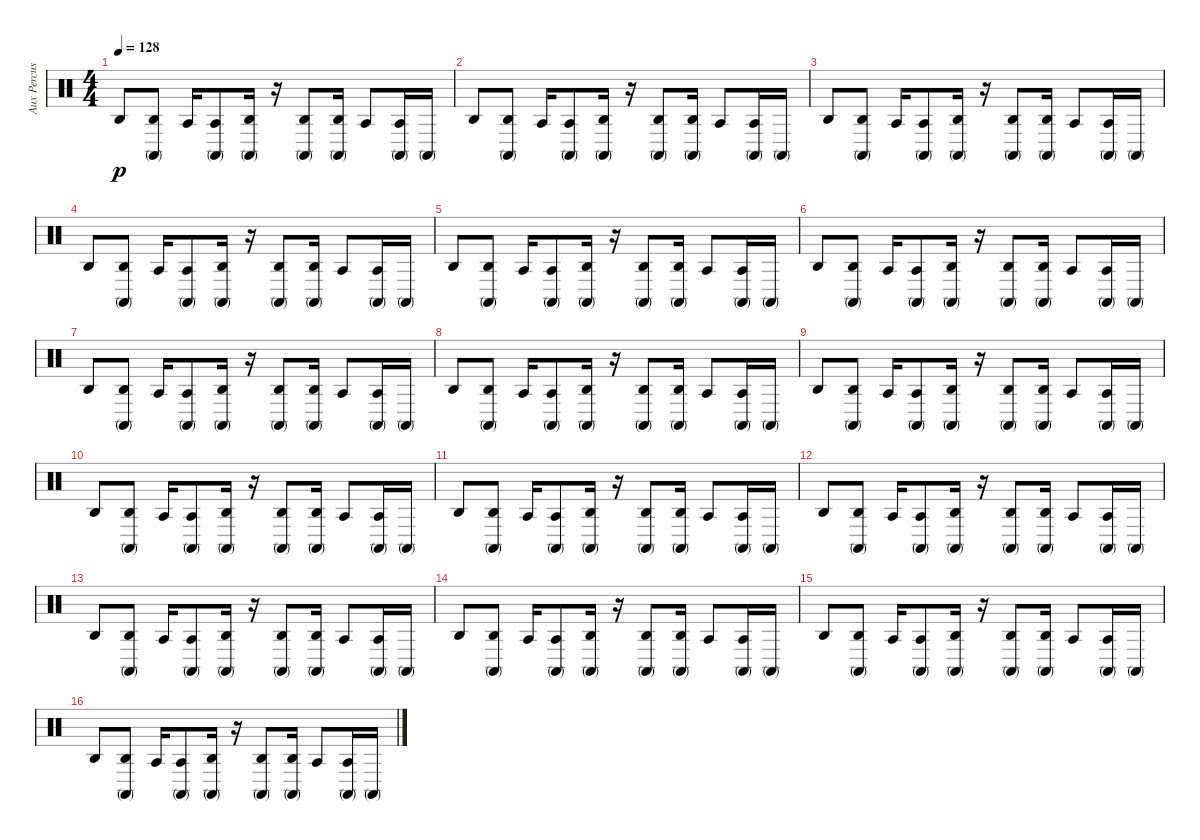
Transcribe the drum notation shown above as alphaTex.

\track ("Aux Percussion" "Aux Percus") {instrument percussion}
\staff {score}
\articulation defaults
\ts (4 4)
\tempo 128
\clef neutral
\ks c "Agogo high (hit)".8{dy p}
("Agogo high (hit)" "Conga high (mute)").8 "Agogo tow (hit)".16 ("Agogo tow (hit)" "Conga high (mute)").8 ("Conga high (mute)" "Agogo high (hit)").16 r.16 ("Conga high (mute)" "Agogo high (hit)").8 ("Agogo high (hit)" "Conga high (mute)").16 "Agogo tow (hit)".8 ("Conga high (mute)" "Agogo tow (hit)").16 "Conga high (mute)".16 |
"Agogo high (hit)".8 ("Conga high (mute)" "Agogo high (hit)").8 "Agogo tow (hit)".16 ("Conga high (mute)" "Agogo tow (hit)").8 ("Agogo high (hit)" "Conga high (mute)").16 r.16 ("Conga high (mute)" "Agogo high (hit)").8 ("Agogo high (hit)" "Conga high (mute)").16 "Agogo tow (hit)".8 ("Conga high (mute)" "Agogo tow (hit)").16 "Conga high (mute)".16 |
"Agogo high (hit)".8 ("Agogo high (hit)" "Conga high (mute)").8 "Agogo tow (hit)".16 ("Agogo tow (hit)" "Conga high (mute)").8 ("Conga high (mute)" "Agogo high (hit)").16 r.16 ("Conga high (mute)" "Agogo high (hit)").8 ("Agogo high (hit)" "Conga high (mute)").16 "Agogo tow (hit)".8 ("Conga high (mute)" "Agogo tow (hit)").16 "Conga high (mute)".16 |
"Agogo high (hit)".8 ("Conga high (mute)" "Agogo high (hit)").8 "Agogo tow (hit)".16 ("Conga high (mute)" "Agogo tow (hit)").8 ("Agogo high (hit)" "Conga high (mute)").16 r.16 ("Conga high (mute)" "Agogo high (hit)").8 ("Agogo high (hit)" "Conga high (mute)").16 "Agogo tow (hit)".8 ("Conga high (mute)" "Agogo tow (hit)").16 "Conga high (mute)".16 |
"Agogo high (hit)".8 ("Conga high (mute)" "Agogo high (hit)").8 "Agogo tow (hit)".16 ("Conga high (mute)" "Agogo tow (hit)").8 ("Agogo high (hit)" "Conga high (mute)").16 r.16 ("Agogo high (hit)" "Conga high (mute)").8 ("Conga high (mute)" "Agogo high (hit)").16 "Agogo tow (hit)".8 ("Agogo tow (hit)" "Conga high (mute)").16 "Conga high (mute)".16 |
"Agogo high (hit)".8 ("Agogo high (hit)" "Conga high (mute)").8 "Agogo tow (hit)".16 ("Agogo tow (hit)" "Conga high (mute)").8 ("Conga high (mute)" "Agogo high (hit)").16 r.16 ("Agogo high (hit)" "Conga high (mute)").8 ("Conga high (mute)" "Agogo high (hit)").16 "Agogo tow (hit)".8 ("Agogo tow (hit)" "Conga high (mute)").16 "Conga high (mute)".16 |
"Agogo high (hit)".8 ("Conga high (mute)" "Agogo high (hit)").8 "Agogo tow (hit)".16 ("Conga high (mute)" "Agogo tow (hit)").8 ("Agogo high (hit)" "Conga high (mute)").16 r.16 ("Agogo high (hit)" "Conga high (mute)").8 ("Conga high (mute)" "Agogo high (hit)").16 "Agogo tow (hit)".8 ("Agogo tow (hit)" "Conga high (mute)").16 "Conga high (mute)".16 |
"Agogo high (hit)".8 ("Conga high (mute)" "Agogo high (hit)").8 "Agogo tow (hit)".16 ("Conga high (mute)" "Agogo tow (hit)").8 ("Agogo high (hit)" "Conga high (mute)").16 r.16 ("Conga high (mute)" "Agogo high (hit)").8 ("Agogo high (hit)" "Conga high (mute)").16 "Agogo tow (hit)".8 ("Conga high (mute)" "Agogo tow (hit)").16 "Conga high (mute)".16 |
"Agogo high (hit)".8 ("Conga high (mute)" "Agogo high (hit)").8 "Agogo tow (hit)".16 ("Conga high (mute)" "Agogo tow (hit)").8 ("Agogo high (hit)" "Conga high (mute)").16 r.16 ("Agogo high (hit)" "Conga high (mute)").8 ("Conga high (mute)" "Agogo high (hit)").16 "Agogo tow (hit)".8 ("Agogo tow (hit)" "Conga high (mute)").16 "Conga high (mute)".16 |
"Agogo high (hit)".8 ("Agogo high (hit)" "Conga high (mute)").8 "Agogo tow (hit)".16 ("Agogo tow (hit)" "Conga high (mute)").8 ("Conga high (mute)" "Agogo high (hit)").16 r.16 ("Agogo high (hit)" "Conga high (mute)").8 ("Conga high (mute)" "Agogo high (hit)").16 "Agogo tow (hit)".8 ("Agogo tow (hit)" "Conga high (mute)").16 "Conga high (mute)".16 |
"Agogo high (hit)".8 ("Conga high (mute)" "Agogo high (hit)").8 "Agogo tow (hit)".16 ("Conga high (mute)" "Agogo tow (hit)").8 ("Agogo high (hit)" "Conga high (mute)").16 r.16 ("Agogo high (hit)" "Conga high (mute)").8 ("Conga high (mute)" "Agogo high (hit)").16 "Agogo tow (hit)".8 ("Agogo tow (hit)" "Conga high (mute)").16 "Conga high (mute)".16 |
"Agogo high (hit)".8 ("Conga high (mute)" "Agogo high (hit)").8 "Agogo tow (hit)".16 ("Conga high (mute)" "Agogo tow (hit)").8 ("Agogo high (hit)" "Conga high (mute)").16 r.16 ("Agogo high (hit)" "Conga high (mute)").8 ("Conga high (mute)" "Agogo high (hit)").16 "Agogo tow (hit)".8 ("Agogo tow (hit)" "Conga high (mute)").16 "Conga high (mute)".16 |
"Agogo high (hit)".8 ("Agogo high (hit)" "Conga high (mute)").8 "Agogo tow (hit)".16 ("Agogo tow (hit)" "Conga high (mute)").8 ("Conga high (mute)" "Agogo high (hit)").16 r.16 ("Conga high (mute)" "Agogo high (hit)").8 ("Agogo high (hit)" "Conga high (mute)").16 "Agogo tow (hit)".8 ("Conga high (mute)" "Agogo tow (hit)").16 "Conga high (mute)".16 |
"Agogo high (hit)".8 ("Conga high (mute)" "Agogo high (hit)").8 "Agogo tow (hit)".16 ("Agogo tow (hit)" "Conga high (mute)").8 ("Agogo high (hit)" "Conga high (mute)").16 r.16 ("Agogo high (hit)" "Conga high (mute)").8 ("Conga high (mute)" "Agogo high (hit)").16 "Agogo tow (hit)".8 ("Agogo tow (hit)" "Conga high (mute)").16 "Conga high (mute)".16 |
"Agogo high (hit)".8 ("Conga high (mute)" "Agogo high (hit)").8 "Agogo tow (hit)".16 ("Conga high (mute)" "Agogo tow (hit)").8 ("Agogo high (hit)" "Conga high (mute)").16 r.16 ("Agogo high (hit)" "Conga high (mute)").8 ("Conga high (mute)" "Agogo high (hit)").16 "Agogo tow (hit)".8 ("Agogo tow (hit)" "Conga high (mute)").16 "Conga high (mute)".16 |
"Agogo high (hit)".8 ("Agogo high (hit)" "Conga high (mute)").8 "Agogo tow (hit)".16 ("Conga high (mute)" "Agogo tow (hit)").8 ("Conga high (mute)" "Agogo high (hit)").16 r.16 ("Conga high (mute)" "Agogo high (hit)").8 ("Agogo high (hit)" "Conga high (mute)").16 "Agogo tow (hit)".8 ("Conga high (mute)" "Agogo tow (hit)").16 "Conga high (mute)".16
